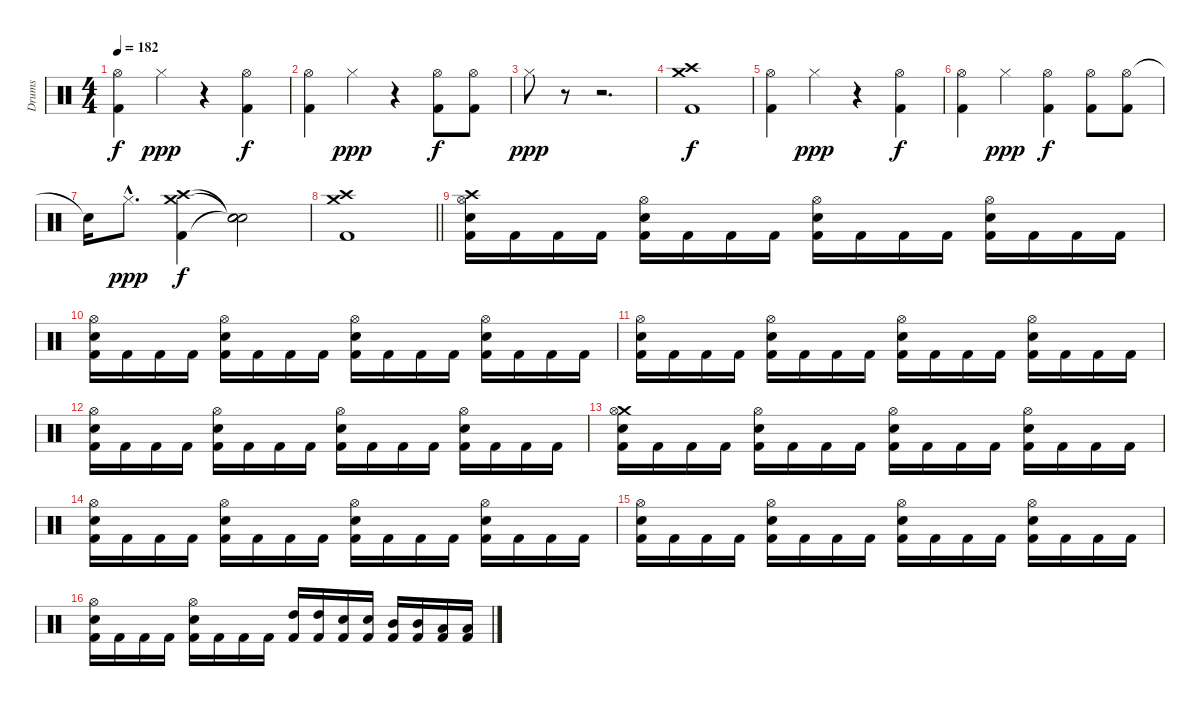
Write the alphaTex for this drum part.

\track ("Drums" "Drums") {instrument percussion}
\staff {score}
\articulation defaults
\ts (4 4)
\tempo 182
\clef neutral
\ks c
("Hi-Hat (open)" "Kick (hit) 2").4{dy f} "Hi-Hat (closed)".4{dy ppp} r.4 ("Hi-Hat (open)" "Kick (hit) 2").4{dy f} |
("Hi-Hat (open)" "Kick (hit) 2").4 "Hi-Hat (closed)".4{dy ppp} r.4 ("Hi-Hat (open)" "Kick (hit) 2").8{dy f} ("Hi-Hat (open)" "Kick (hit) 2").8 |
"Hi-Hat (closed)".8{dy ppp} r.8 r.2{d} |
("Crash high (hit)" "Crash medium (hit)" "Kick (hit) 2").1{dy f} |
("Hi-Hat (open)" "Kick (hit) 2").4 "Hi-Hat (closed)".4{dy ppp} r.4 ("Hi-Hat (open)" "Kick (hit) 2").4{dy f} |
("Hi-Hat (open)" "Kick (hit) 2").4 "Hi-Hat (closed)".4{dy ppp} ("Hi-Hat (open)" "Kick (hit) 2").4{dy f} ("Hi-Hat (open)" "Kick (hit) 2").8 ("Hi-Hat (open)" "Kick (hit) 2").8 |
"Snare (hit)"{t}.16 "Hi-Hat (closed)"{hac}.8{d dy ppp} ("Crash high (hit)" "Crash medium (hit)" "Kick (hit) 2").4{dy f} ("Snare (hit)"{t} "Snare (hit)"{t} "Snare (hit)"{t}).2 |
\barLineRight lightlight
("Crash high (hit)" "Crash medium (hit)" "Kick (hit) 2").1 |
("Crash high (hit)" "Hi-Hat (open)" "Electric Snare (hit)" "Kick (hit) 2").16 "Kick (hit) 2".16 "Kick (hit) 2".16 "Kick (hit) 2".16 ("Hi-Hat (open)" "Electric Snare (hit)" "Kick (hit) 2").16 "Kick (hit) 2".16 "Kick (hit) 2".16 "Kick (hit) 2".16 ("Hi-Hat (open)" "Electric Snare (hit)" "Kick (hit) 2").16 "Kick (hit) 2".16 "Kick (hit) 2".16 "Kick (hit) 2".16 ("Hi-Hat (open)" "Electric Snare (hit)" "Kick (hit) 2").16 "Kick (hit) 2".16 "Kick (hit) 2".16 "Kick (hit) 2".16 |
("Hi-Hat (open)" "Electric Snare (hit)" "Kick (hit) 2").16 "Kick (hit) 2".16 "Kick (hit) 2".16 "Kick (hit) 2".16 ("Hi-Hat (open)" "Electric Snare (hit)" "Kick (hit) 2").16 "Kick (hit) 2".16 "Kick (hit) 2".16 "Kick (hit) 2".16 ("Hi-Hat (open)" "Electric Snare (hit)" "Kick (hit) 2").16 "Kick (hit) 2".16 "Kick (hit) 2".16 "Kick (hit) 2".16 ("Hi-Hat (open)" "Electric Snare (hit)" "Kick (hit) 2").16 "Kick (hit) 2".16 "Kick (hit) 2".16 "Kick (hit) 2".16 |
("Hi-Hat (open)" "Electric Snare (hit)" "Kick (hit) 2").16 "Kick (hit) 2".16 "Kick (hit) 2".16 "Kick (hit) 2".16 ("Hi-Hat (open)" "Electric Snare (hit)" "Kick (hit) 2").16 "Kick (hit) 2".16 "Kick (hit) 2".16 "Kick (hit) 2".16 ("Hi-Hat (open)" "Electric Snare (hit)" "Kick (hit) 2").16 "Kick (hit) 2".16 "Kick (hit) 2".16 "Kick (hit) 2".16 ("Hi-Hat (open)" "Electric Snare (hit)" "Kick (hit) 2").16 "Kick (hit) 2".16 "Kick (hit) 2".16 "Kick (hit) 2".16 |
("Hi-Hat (open)" "Electric Snare (hit)" "Kick (hit) 2").16 "Kick (hit) 2".16 "Kick (hit) 2".16 "Kick (hit) 2".16 ("Hi-Hat (open)" "Electric Snare (hit)" "Kick (hit) 2").16 "Kick (hit) 2".16 "Kick (hit) 2".16 "Kick (hit) 2".16 ("Hi-Hat (open)" "Electric Snare (hit)" "Kick (hit) 2").16 "Kick (hit) 2".16 "Kick (hit) 2".16 "Kick (hit) 2".16 ("Hi-Hat (open)" "Electric Snare (hit)" "Kick (hit) 2").16 "Kick (hit) 2".16 "Kick (hit) 2".16 "Kick (hit) 2".16 |
("Crash medium (hit)" "Hi-Hat (open)" "Electric Snare (hit)" "Kick (hit) 2").16 "Kick (hit) 2".16 "Kick (hit) 2".16 "Kick (hit) 2".16 ("Hi-Hat (open)" "Electric Snare (hit)" "Kick (hit) 2").16 "Kick (hit) 2".16 "Kick (hit) 2".16 "Kick (hit) 2".16 ("Hi-Hat (open)" "Electric Snare (hit)" "Kick (hit) 2").16 "Kick (hit) 2".16 "Kick (hit) 2".16 "Kick (hit) 2".16 ("Hi-Hat (open)" "Electric Snare (hit)" "Kick (hit) 2").16 "Kick (hit) 2".16 "Kick (hit) 2".16 "Kick (hit) 2".16 |
("Hi-Hat (open)" "Electric Snare (hit)" "Kick (hit) 2").16 "Kick (hit) 2".16 "Kick (hit) 2".16 "Kick (hit) 2".16 ("Hi-Hat (open)" "Electric Snare (hit)" "Kick (hit) 2").16 "Kick (hit) 2".16 "Kick (hit) 2".16 "Kick (hit) 2".16 ("Hi-Hat (open)" "Electric Snare (hit)" "Kick (hit) 2").16 "Kick (hit) 2".16 "Kick (hit) 2".16 "Kick (hit) 2".16 ("Hi-Hat (open)" "Electric Snare (hit)" "Kick (hit) 2").16 "Kick (hit) 2".16 "Kick (hit) 2".16 "Kick (hit) 2".16 |
("Hi-Hat (open)" "Electric Snare (hit)" "Kick (hit) 2").16 "Kick (hit) 2".16 "Kick (hit) 2".16 "Kick (hit) 2".16 ("Hi-Hat (open)" "Electric Snare (hit)" "Kick (hit) 2").16 "Kick (hit) 2".16 "Kick (hit) 2".16 "Kick (hit) 2".16 ("Hi-Hat (open)" "Electric Snare (hit)" "Kick (hit) 2").16 "Kick (hit) 2".16 "Kick (hit) 2".16 "Kick (hit) 2".16 ("Hi-Hat (open)" "Electric Snare (hit)" "Kick (hit) 2").16 "Kick (hit) 2".16 "Kick (hit) 2".16 "Kick (hit) 2".16 |
("Hi-Hat (open)" "Electric Snare (hit)" "Kick (hit) 2").16 "Kick (hit) 2".16 "Kick (hit) 2".16 "Kick (hit) 2".16 ("Hi-Hat (open)" "Electric Snare (hit)" "Kick (hit) 2").16 "Kick (hit) 2".16 "Kick (hit) 2".16 "Kick (hit) 2".16 ("High Tom (hit)" "Kick (hit) 2").16 ("High Tom (hit)" "Kick (hit) 2").16 ("Electric Snare (hit)" "Kick (hit) 2").16 ("Electric Snare (hit)" "Kick (hit) 2").16 ("Mid Tom (hit)" "Kick (hit) 2").16 ("Mid Tom (hit)" "Kick (hit) 2").16 ("Low Tom (hit)" "Kick (hit) 2").16 ("Low Tom (hit)" "Kick (hit) 2").16
